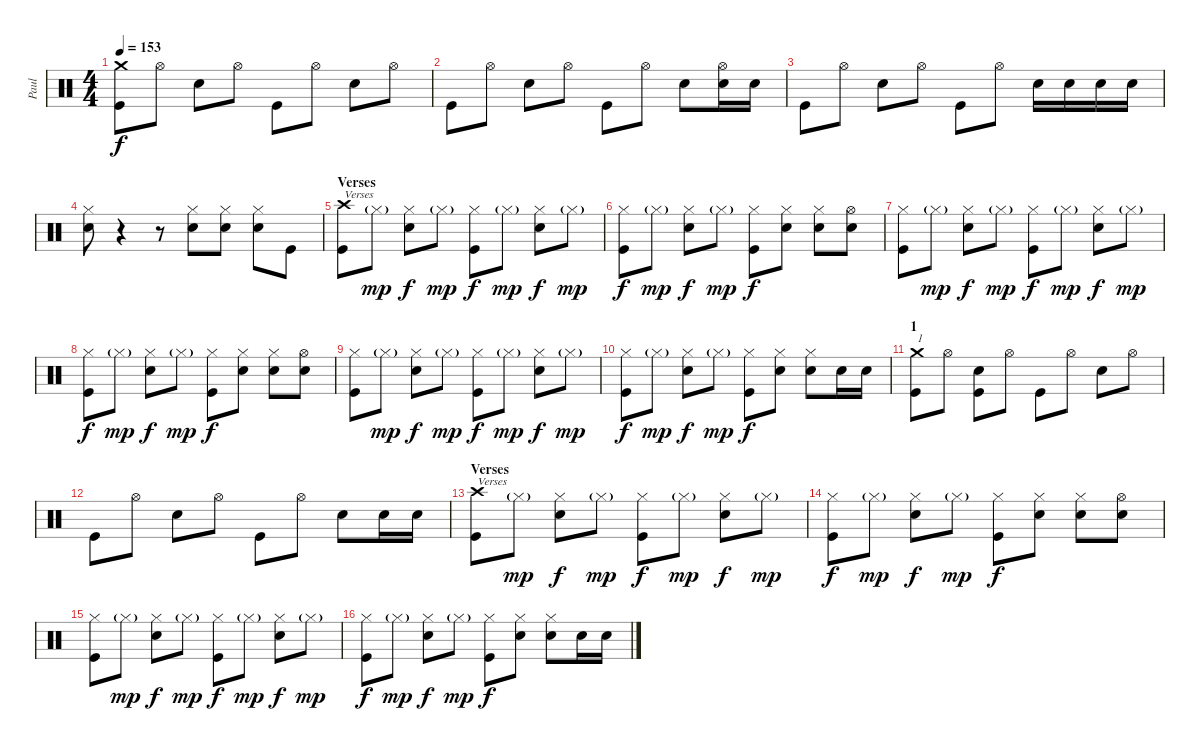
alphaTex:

\track ("Paul" "Paul") {instrument percussion}
\staff {score}
\articulation defaults
\ts (4 4)
\tempo 153
\clef neutral
\ks c
("Kick (hit)" "Crash medium (hit)").8{dy f} "Hi-Hat (open)".8 "Electric Snare (hit)".8 "Hi-Hat (open)".8 "Kick (hit)".8 "Hi-Hat (open)".8 "Electric Snare (hit)".8 "Hi-Hat (open)".8 |
"Kick (hit)".8 "Hi-Hat (open)".8 "Electric Snare (hit)".8 "Hi-Hat (open)".8 "Kick (hit)".8 "Hi-Hat (open)".8 "Electric Snare (hit)".8 ("Hi-Hat (open)" "Electric Snare (hit)").16 "Electric Snare (hit)".16 |
"Kick (hit)".8 "Hi-Hat (open)".8 "Electric Snare (hit)".8 "Hi-Hat (open)".8 "Kick (hit)".8 "Hi-Hat (open)".8 "Electric Snare (hit)".16 "Electric Snare (hit)".16 "Electric Snare (hit)".16 "Electric Snare (hit)".16 |
("Hi-Hat (closed)" "Electric Snare (hit)").8 r.4 r.8 ("Hi-Hat (closed)" "Electric Snare (hit)").8 ("Hi-Hat (closed)" "Electric Snare (hit)").8 ("Hi-Hat (closed)" "Electric Snare (hit)").8 "Kick (hit)".8 |
\section ("" "Verses")
("Crash high (hit)" "Kick (hit)").8{txt "Verses"} "Hi-Hat (closed)"{g}.8{dy mp} ("Hi-Hat (closed)" "Electric Snare (hit)").8{dy f} "Hi-Hat (closed)"{g}.8{dy mp} ("Hi-Hat (closed)" "Kick (hit)").8{dy f} "Hi-Hat (closed)"{g}.8{dy mp} ("Hi-Hat (closed)" "Electric Snare (hit)").8{dy f} "Hi-Hat (closed)"{g}.8{dy mp} |
("Hi-Hat (closed)" "Kick (hit)").8{dy f} "Hi-Hat (closed)"{g}.8{dy mp} ("Hi-Hat (closed)" "Electric Snare (hit)").8{dy f} "Hi-Hat (closed)"{g}.8{dy mp} ("Hi-Hat (closed)" "Kick (hit)").8{dy f} ("Hi-Hat (closed)" "Electric Snare (hit)").8 ("Hi-Hat (closed)" "Electric Snare (hit)").8 ("Hi-Hat (open)" "Electric Snare (hit)").8 |
("Hi-Hat (closed)" "Kick (hit)").8 "Hi-Hat (closed)"{g}.8{dy mp} ("Hi-Hat (closed)" "Electric Snare (hit)").8{dy f} "Hi-Hat (closed)"{g}.8{dy mp} ("Hi-Hat (closed)" "Kick (hit)").8{dy f} "Hi-Hat (closed)"{g}.8{dy mp} ("Hi-Hat (closed)" "Electric Snare (hit)").8{dy f} "Hi-Hat (closed)"{g}.8{dy mp} |
("Hi-Hat (closed)" "Kick (hit)").8{dy f} "Hi-Hat (closed)"{g}.8{dy mp} ("Hi-Hat (closed)" "Electric Snare (hit)").8{dy f} "Hi-Hat (closed)"{g}.8{dy mp} ("Hi-Hat (closed)" "Kick (hit)").8{dy f} ("Hi-Hat (closed)" "Electric Snare (hit)").8 ("Hi-Hat (closed)" "Electric Snare (hit)").8 ("Hi-Hat (open)" "Electric Snare (hit)").8 |
("Hi-Hat (closed)" "Kick (hit)").8 "Hi-Hat (closed)"{g}.8{dy mp} ("Hi-Hat (closed)" "Electric Snare (hit)").8{dy f} "Hi-Hat (closed)"{g}.8{dy mp} ("Hi-Hat (closed)" "Kick (hit)").8{dy f} "Hi-Hat (closed)"{g}.8{dy mp} ("Hi-Hat (closed)" "Electric Snare (hit)").8{dy f} "Hi-Hat (closed)"{g}.8{dy mp} |
("Hi-Hat (closed)" "Kick (hit)").8{dy f} "Hi-Hat (closed)"{g}.8{dy mp} ("Hi-Hat (closed)" "Electric Snare (hit)").8{dy f} "Hi-Hat (closed)"{g}.8{dy mp} ("Hi-Hat (closed)" "Kick (hit)").8{dy f} ("Hi-Hat (closed)" "Electric Snare (hit)").8 ("Hi-Hat (closed)" "Electric Snare (hit)").8 "Electric Snare (hit)".16 "Electric Snare (hit)".16 |
\section ("" "1")
("Kick (hit)" "Crash medium (hit)").8{txt "1"} "Hi-Hat (open)".8 ("Electric Snare (hit)" "Kick (hit)").8 "Hi-Hat (open)".8 "Kick (hit)".8 "Hi-Hat (open)".8 "Electric Snare (hit)".8 "Hi-Hat (open)".8 |
"Kick (hit)".8 "Hi-Hat (open)".8 "Electric Snare (hit)".8 "Hi-Hat (open)".8 "Kick (hit)".8 "Hi-Hat (open)".8 "Electric Snare (hit)".8 "Electric Snare (hit)".16 "Electric Snare (hit)".16 |
\section ("" "Verses")
("Crash high (hit)" "Kick (hit)").8{txt "Verses"} "Hi-Hat (closed)"{g}.8{dy mp} ("Hi-Hat (closed)" "Electric Snare (hit)").8{dy f} "Hi-Hat (closed)"{g}.8{dy mp} ("Hi-Hat (closed)" "Kick (hit)").8{dy f} "Hi-Hat (closed)"{g}.8{dy mp} ("Hi-Hat (closed)" "Electric Snare (hit)").8{dy f} "Hi-Hat (closed)"{g}.8{dy mp} |
("Hi-Hat (closed)" "Kick (hit)").8{dy f} "Hi-Hat (closed)"{g}.8{dy mp} ("Hi-Hat (closed)" "Electric Snare (hit)").8{dy f} "Hi-Hat (closed)"{g}.8{dy mp} ("Hi-Hat (closed)" "Kick (hit)").8{dy f} ("Hi-Hat (closed)" "Electric Snare (hit)").8 ("Hi-Hat (closed)" "Electric Snare (hit)").8 ("Hi-Hat (open)" "Electric Snare (hit)").8 |
("Hi-Hat (closed)" "Kick (hit)").8 "Hi-Hat (closed)"{g}.8{dy mp} ("Hi-Hat (closed)" "Electric Snare (hit)").8{dy f} "Hi-Hat (closed)"{g}.8{dy mp} ("Hi-Hat (closed)" "Kick (hit)").8{dy f} "Hi-Hat (closed)"{g}.8{dy mp} ("Hi-Hat (closed)" "Electric Snare (hit)").8{dy f} "Hi-Hat (closed)"{g}.8{dy mp} |
("Hi-Hat (closed)" "Kick (hit)").8{dy f} "Hi-Hat (closed)"{g}.8{dy mp} ("Hi-Hat (closed)" "Electric Snare (hit)").8{dy f} "Hi-Hat (closed)"{g}.8{dy mp} ("Hi-Hat (closed)" "Kick (hit)").8{dy f} ("Hi-Hat (closed)" "Electric Snare (hit)").8 ("Hi-Hat (closed)" "Electric Snare (hit)").8 "Electric Snare (hit)".16 "Electric Snare (hit)".16
